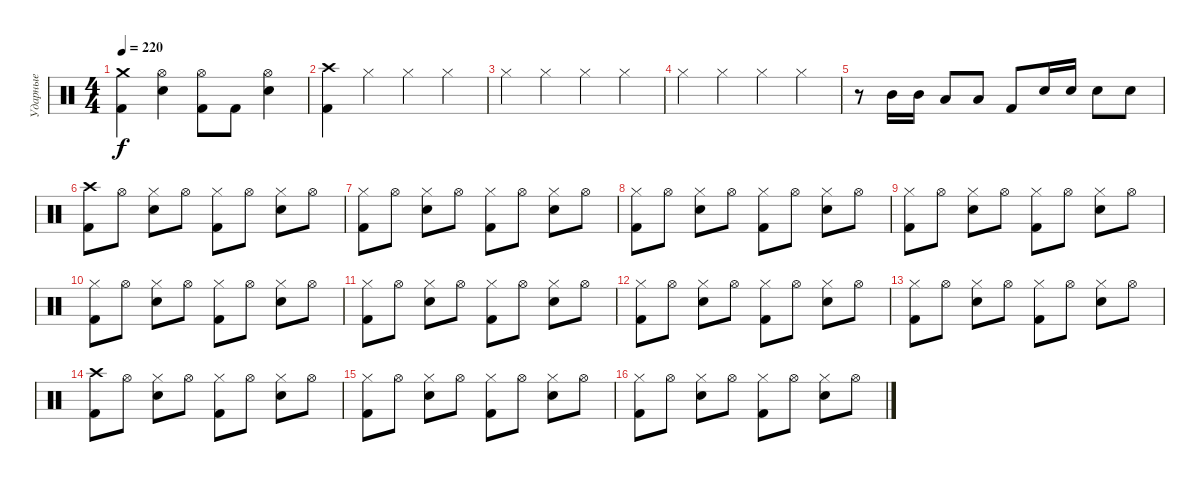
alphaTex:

\track ("Ударные" "Ударные") {instrument percussion}
\staff {score}
\articulation defaults
\ts (4 4)
\tempo 220
\clef neutral
\ks c
("Crash medium (hit)" "Kick (hit) 2").4{dy f} ("Hi-Hat (open)" "Electric Snare (hit)").4 ("Hi-Hat (open)" "Kick (hit) 2").8 "Kick (hit) 2".8 ("Hi-Hat (open)" "Electric Snare (hit)").4 |
("Crash high (hit)" "Kick (hit) 2").4 "Hi-Hat (closed)".4 "Hi-Hat (closed)".4 "Hi-Hat (closed)".4 |
"Hi-Hat (closed)".4 "Hi-Hat (closed)".4 "Hi-Hat (closed)".4 "Hi-Hat (closed)".4 |
"Hi-Hat (closed)".4 "Hi-Hat (closed)".4 "Hi-Hat (closed)".4 "Hi-Hat (closed)".4 |
r.8 "Mid Tom (hit)".16 "Mid Tom (hit)".16 "Low Tom (hit)".8 "Low Tom (hit)".8 "Kick (hit) 2".8 "Electric Snare (hit)".16 "Electric Snare (hit)".16 "Electric Snare (hit)".8 "Electric Snare (hit)".8 |
("Crash high (hit)" "Kick (hit) 2").8 "Hi-Hat (open)".8 ("Hi-Hat (closed)" "Electric Snare (hit)").8 "Hi-Hat (open)".8 ("Hi-Hat (closed)" "Kick (hit) 2").8 "Hi-Hat (open)".8 ("Hi-Hat (closed)" "Electric Snare (hit)").8 "Hi-Hat (open)".8 |
("Hi-Hat (closed)" "Kick (hit) 2").8 "Hi-Hat (open)".8 ("Hi-Hat (closed)" "Electric Snare (hit)").8 "Hi-Hat (open)".8 ("Hi-Hat (closed)" "Kick (hit) 2").8 "Hi-Hat (open)".8 ("Hi-Hat (closed)" "Electric Snare (hit)").8 "Hi-Hat (open)".8 |
("Hi-Hat (closed)" "Kick (hit) 2").8 "Hi-Hat (open)".8 ("Hi-Hat (closed)" "Electric Snare (hit)").8 "Hi-Hat (open)".8 ("Hi-Hat (closed)" "Kick (hit) 2").8 "Hi-Hat (open)".8 ("Hi-Hat (closed)" "Electric Snare (hit)").8 "Hi-Hat (open)".8 |
("Hi-Hat (closed)" "Kick (hit) 2").8 "Hi-Hat (open)".8 ("Hi-Hat (closed)" "Electric Snare (hit)").8 "Hi-Hat (open)".8 ("Hi-Hat (closed)" "Kick (hit) 2").8 "Hi-Hat (open)".8 ("Hi-Hat (closed)" "Electric Snare (hit)").8 "Hi-Hat (open)".8 |
("Hi-Hat (closed)" "Kick (hit) 2").8 "Hi-Hat (open)".8 ("Hi-Hat (closed)" "Electric Snare (hit)").8 "Hi-Hat (open)".8 ("Hi-Hat (closed)" "Kick (hit) 2").8 "Hi-Hat (open)".8 ("Hi-Hat (closed)" "Electric Snare (hit)").8 "Hi-Hat (open)".8 |
("Hi-Hat (closed)" "Kick (hit) 2").8 "Hi-Hat (open)".8 ("Hi-Hat (closed)" "Electric Snare (hit)").8 "Hi-Hat (open)".8 ("Hi-Hat (closed)" "Kick (hit) 2").8 "Hi-Hat (open)".8 ("Hi-Hat (closed)" "Electric Snare (hit)").8 "Hi-Hat (open)".8 |
("Hi-Hat (closed)" "Kick (hit) 2").8 "Hi-Hat (open)".8 ("Hi-Hat (closed)" "Electric Snare (hit)").8 "Hi-Hat (open)".8 ("Hi-Hat (closed)" "Kick (hit) 2").8 "Hi-Hat (open)".8 ("Hi-Hat (closed)" "Electric Snare (hit)").8 "Hi-Hat (open)".8 |
("Hi-Hat (closed)" "Kick (hit) 2").8 "Hi-Hat (open)".8 ("Hi-Hat (closed)" "Electric Snare (hit)").8 "Hi-Hat (open)".8 ("Hi-Hat (closed)" "Kick (hit) 2").8 "Hi-Hat (open)".8 ("Hi-Hat (closed)" "Electric Snare (hit)").8 "Hi-Hat (open)".8 |
("Crash high (hit)" "Kick (hit) 2").8 "Hi-Hat (open)".8 ("Hi-Hat (closed)" "Electric Snare (hit)").8 "Hi-Hat (open)".8 ("Hi-Hat (closed)" "Kick (hit) 2").8 "Hi-Hat (open)".8 ("Hi-Hat (closed)" "Electric Snare (hit)").8 "Hi-Hat (open)".8 |
("Hi-Hat (closed)" "Kick (hit) 2").8 "Hi-Hat (open)".8 ("Hi-Hat (closed)" "Electric Snare (hit)").8 "Hi-Hat (open)".8 ("Hi-Hat (closed)" "Kick (hit) 2").8 "Hi-Hat (open)".8 ("Hi-Hat (closed)" "Electric Snare (hit)").8 "Hi-Hat (open)".8 |
("Hi-Hat (closed)" "Kick (hit) 2").8 "Hi-Hat (open)".8 ("Hi-Hat (closed)" "Electric Snare (hit)").8 "Hi-Hat (open)".8 ("Hi-Hat (closed)" "Kick (hit) 2").8 "Hi-Hat (open)".8 ("Hi-Hat (closed)" "Electric Snare (hit)").8 "Hi-Hat (open)".8
